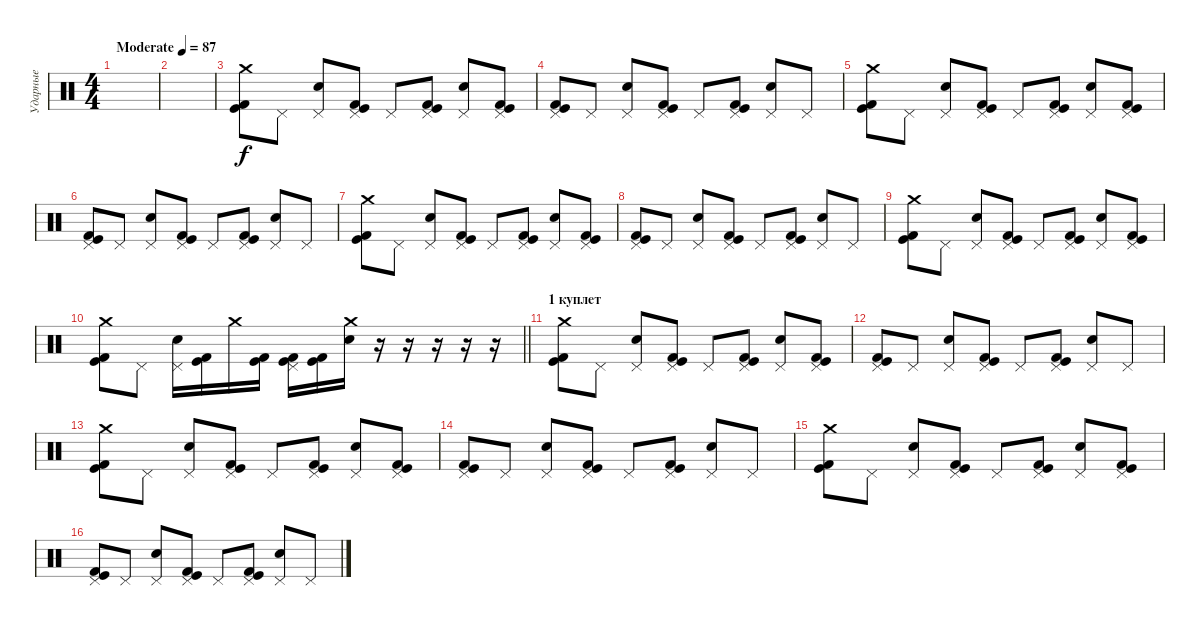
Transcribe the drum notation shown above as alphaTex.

\track ("Ударные" "Ударные") {instrument percussion}
\staff {score}
\articulation defaults
\ts (4 4)
\tempo (87 "Moderate")
\clef neutral
\ks c
|
|
("Crash medium (hit)" "Kick (hit)" "Kick (hit) 2").8 "Pedal Hi-Hat (hit)".8 ("Pedal Hi-Hat (hit)" "Electric Snare (hit)").8 ("Pedal Hi-Hat (hit)" "Kick (hit)" "Kick (hit) 2").8 "Pedal Hi-Hat (hit)".8 ("Pedal Hi-Hat (hit)" "Kick (hit)" "Kick (hit) 2").8 ("Pedal Hi-Hat (hit)" "Electric Snare (hit)").8 ("Pedal Hi-Hat (hit)" "Kick (hit)" "Kick (hit) 2").8 |
("Pedal Hi-Hat (hit)" "Kick (hit)" "Kick (hit) 2").8 "Pedal Hi-Hat (hit)".8 ("Pedal Hi-Hat (hit)" "Electric Snare (hit)").8 ("Pedal Hi-Hat (hit)" "Kick (hit)" "Kick (hit) 2").8 "Pedal Hi-Hat (hit)".8 ("Pedal Hi-Hat (hit)" "Kick (hit)" "Kick (hit) 2").8 ("Pedal Hi-Hat (hit)" "Electric Snare (hit)").8 "Pedal Hi-Hat (hit)".8 |
("Crash medium (hit)" "Kick (hit)" "Kick (hit) 2").8 "Pedal Hi-Hat (hit)".8 ("Pedal Hi-Hat (hit)" "Electric Snare (hit)").8 ("Pedal Hi-Hat (hit)" "Kick (hit)" "Kick (hit) 2").8 "Pedal Hi-Hat (hit)".8 ("Pedal Hi-Hat (hit)" "Kick (hit)" "Kick (hit) 2").8 ("Pedal Hi-Hat (hit)" "Electric Snare (hit)").8 ("Pedal Hi-Hat (hit)" "Kick (hit)" "Kick (hit) 2").8 |
("Pedal Hi-Hat (hit)" "Kick (hit)" "Kick (hit) 2").8 "Pedal Hi-Hat (hit)".8 ("Pedal Hi-Hat (hit)" "Electric Snare (hit)").8 ("Pedal Hi-Hat (hit)" "Kick (hit)" "Kick (hit) 2").8 "Pedal Hi-Hat (hit)".8 ("Pedal Hi-Hat (hit)" "Kick (hit)" "Kick (hit) 2").8 ("Pedal Hi-Hat (hit)" "Electric Snare (hit)").8 "Pedal Hi-Hat (hit)".8 |
("Crash medium (hit)" "Kick (hit)" "Kick (hit) 2").8 "Pedal Hi-Hat (hit)".8 ("Pedal Hi-Hat (hit)" "Electric Snare (hit)").8 ("Pedal Hi-Hat (hit)" "Kick (hit)" "Kick (hit) 2").8 "Pedal Hi-Hat (hit)".8 ("Pedal Hi-Hat (hit)" "Kick (hit)" "Kick (hit) 2").8 ("Pedal Hi-Hat (hit)" "Electric Snare (hit)").8 ("Pedal Hi-Hat (hit)" "Kick (hit)" "Kick (hit) 2").8 |
("Pedal Hi-Hat (hit)" "Kick (hit)" "Kick (hit) 2").8 "Pedal Hi-Hat (hit)".8 ("Pedal Hi-Hat (hit)" "Electric Snare (hit)").8 ("Pedal Hi-Hat (hit)" "Kick (hit)" "Kick (hit) 2").8 "Pedal Hi-Hat (hit)".8 ("Pedal Hi-Hat (hit)" "Kick (hit)" "Kick (hit) 2").8 ("Pedal Hi-Hat (hit)" "Electric Snare (hit)").8 "Pedal Hi-Hat (hit)".8 |
("Crash medium (hit)" "Kick (hit)" "Kick (hit) 2").8 "Pedal Hi-Hat (hit)".8 ("Pedal Hi-Hat (hit)" "Electric Snare (hit)").8 ("Pedal Hi-Hat (hit)" "Kick (hit)" "Kick (hit) 2").8 "Pedal Hi-Hat (hit)".8 ("Pedal Hi-Hat (hit)" "Kick (hit)" "Kick (hit) 2").8 ("Pedal Hi-Hat (hit)" "Electric Snare (hit)").8 ("Pedal Hi-Hat (hit)" "Kick (hit)" "Kick (hit) 2").8 |
\barLineRight lightlight
("Crash medium (hit)" "Kick (hit)" "Kick (hit) 2").8 "Pedal Hi-Hat (hit)".8 ("Pedal Hi-Hat (hit)" "Electric Snare (hit)").16 ("Kick (hit)" "Kick (hit) 2").16 "Crash medium (hit)".16 ("Kick (hit)" "Kick (hit) 2").16 ("Pedal Hi-Hat (hit)" "Kick (hit)" "Kick (hit) 2").16 ("Kick (hit)" "Kick (hit) 2").16 ("Crash medium (hit)" "Electric Snare (hit)").16 r.16 r.16 r.16 r.16 r.16 |
\section ("" "1 куплет")
("Crash medium (hit)" "Kick (hit)" "Kick (hit) 2").8 "Pedal Hi-Hat (hit)".8 ("Pedal Hi-Hat (hit)" "Electric Snare (hit)").8 ("Pedal Hi-Hat (hit)" "Kick (hit)" "Kick (hit) 2").8 "Pedal Hi-Hat (hit)".8 ("Pedal Hi-Hat (hit)" "Kick (hit)" "Kick (hit) 2").8 ("Pedal Hi-Hat (hit)" "Electric Snare (hit)").8 ("Pedal Hi-Hat (hit)" "Kick (hit)" "Kick (hit) 2").8 |
("Pedal Hi-Hat (hit)" "Kick (hit)" "Kick (hit) 2").8 "Pedal Hi-Hat (hit)".8 ("Pedal Hi-Hat (hit)" "Electric Snare (hit)").8 ("Pedal Hi-Hat (hit)" "Kick (hit)" "Kick (hit) 2").8 "Pedal Hi-Hat (hit)".8 ("Pedal Hi-Hat (hit)" "Kick (hit)" "Kick (hit) 2").8 ("Pedal Hi-Hat (hit)" "Electric Snare (hit)").8 "Pedal Hi-Hat (hit)".8 |
("Crash medium (hit)" "Kick (hit)" "Kick (hit) 2").8 "Pedal Hi-Hat (hit)".8 ("Pedal Hi-Hat (hit)" "Electric Snare (hit)").8 ("Pedal Hi-Hat (hit)" "Kick (hit)" "Kick (hit) 2").8 "Pedal Hi-Hat (hit)".8 ("Pedal Hi-Hat (hit)" "Kick (hit)" "Kick (hit) 2").8 ("Pedal Hi-Hat (hit)" "Electric Snare (hit)").8 ("Pedal Hi-Hat (hit)" "Kick (hit)" "Kick (hit) 2").8 |
("Pedal Hi-Hat (hit)" "Kick (hit)" "Kick (hit) 2").8 "Pedal Hi-Hat (hit)".8 ("Pedal Hi-Hat (hit)" "Electric Snare (hit)").8 ("Pedal Hi-Hat (hit)" "Kick (hit)" "Kick (hit) 2").8 "Pedal Hi-Hat (hit)".8 ("Pedal Hi-Hat (hit)" "Kick (hit)" "Kick (hit) 2").8 ("Pedal Hi-Hat (hit)" "Electric Snare (hit)").8 "Pedal Hi-Hat (hit)".8 |
("Crash medium (hit)" "Kick (hit)" "Kick (hit) 2").8 "Pedal Hi-Hat (hit)".8 ("Pedal Hi-Hat (hit)" "Electric Snare (hit)").8 ("Pedal Hi-Hat (hit)" "Kick (hit)" "Kick (hit) 2").8 "Pedal Hi-Hat (hit)".8 ("Pedal Hi-Hat (hit)" "Kick (hit)" "Kick (hit) 2").8 ("Pedal Hi-Hat (hit)" "Electric Snare (hit)").8 ("Pedal Hi-Hat (hit)" "Kick (hit)" "Kick (hit) 2").8 |
("Pedal Hi-Hat (hit)" "Kick (hit)" "Kick (hit) 2").8 "Pedal Hi-Hat (hit)".8 ("Pedal Hi-Hat (hit)" "Electric Snare (hit)").8 ("Pedal Hi-Hat (hit)" "Kick (hit)" "Kick (hit) 2").8 "Pedal Hi-Hat (hit)".8 ("Pedal Hi-Hat (hit)" "Kick (hit)" "Kick (hit) 2").8 ("Pedal Hi-Hat (hit)" "Electric Snare (hit)").8 "Pedal Hi-Hat (hit)".8
